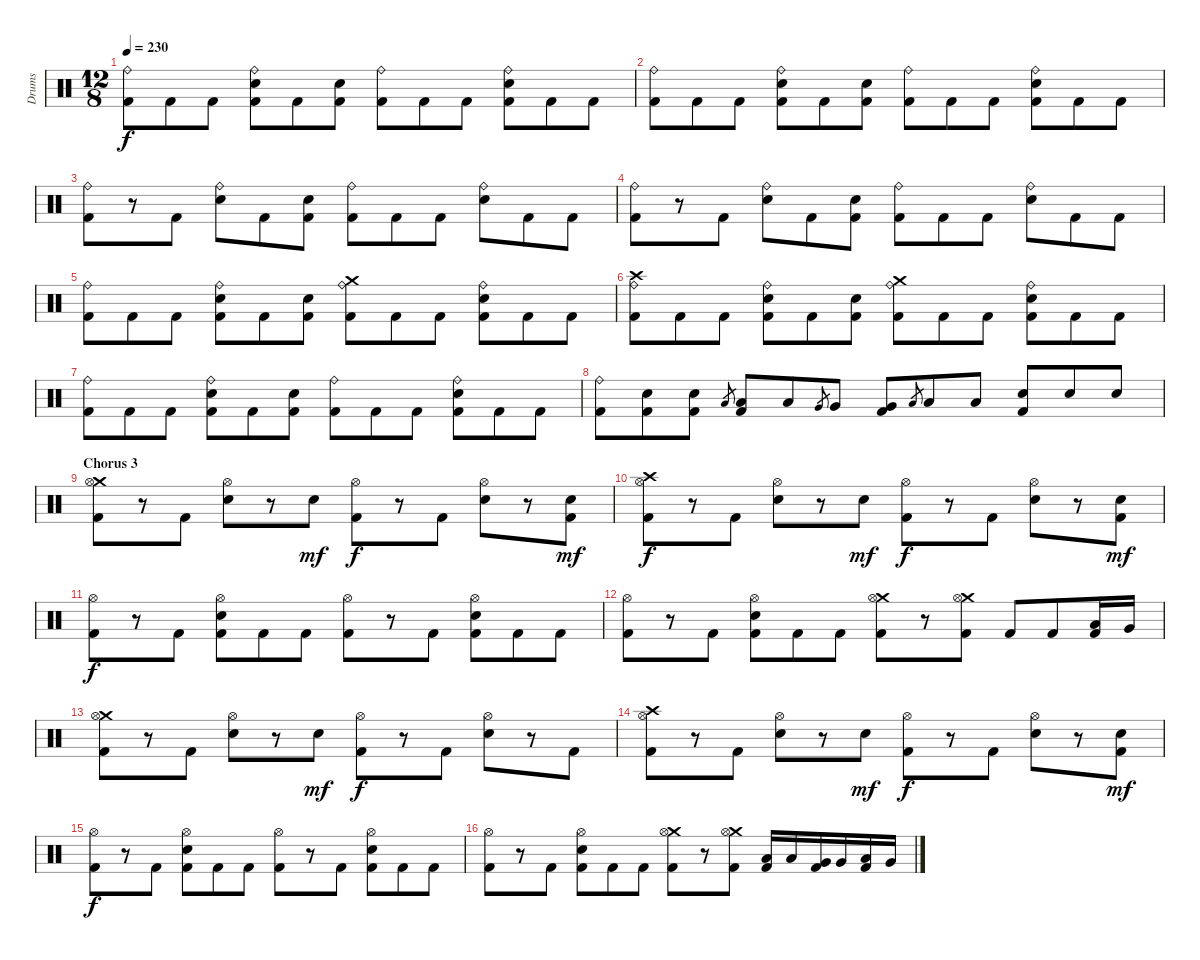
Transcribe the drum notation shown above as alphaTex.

\track ("Drums" "Drums") {instrument percussion}
\staff {score}
\articulation defaults
\ts (12 8)
\tempo 230
\clef neutral
\ks c
("Ride (bell)" "Kick (hit) 2").8{dy f} "Kick (hit) 2".8 "Kick (hit) 2".8 ("Ride (bell)" "Snare (hit) 2" "Kick (hit) 2").8 "Kick (hit) 2".8 ("Snare (hit) 2" "Kick (hit) 2").8 ("Ride (bell)" "Kick (hit) 2").8 "Kick (hit) 2".8 "Kick (hit) 2".8 ("Ride (bell)" "Snare (hit) 2" "Kick (hit) 2").8 "Kick (hit) 2".8 "Kick (hit) 2".8 |
("Ride (bell)" "Kick (hit) 2").8 "Kick (hit) 2".8 "Kick (hit) 2".8 ("Ride (bell)" "Snare (hit) 2" "Kick (hit) 2").8 "Kick (hit) 2".8 ("Snare (hit) 2" "Kick (hit) 2").8 ("Ride (bell)" "Kick (hit) 2").8 "Kick (hit) 2".8 "Kick (hit) 2".8 ("Ride (bell)" "Snare (hit) 2" "Kick (hit) 2").8 "Kick (hit) 2".8 "Kick (hit) 2".8 |
("Ride (bell)" "Kick (hit) 2").8 r.8 "Kick (hit) 2".8 ("Ride (bell)" "Snare (hit) 2").8 "Kick (hit) 2".8 ("Snare (hit) 2" "Kick (hit) 2").8 ("Ride (bell)" "Kick (hit) 2").8 "Kick (hit) 2".8 "Kick (hit) 2".8 ("Ride (bell)" "Snare (hit) 2").8 "Kick (hit) 2".8 "Kick (hit) 2".8 |
("Ride (bell)" "Kick (hit) 2").8 r.8 "Kick (hit) 2".8 ("Ride (bell)" "Snare (hit) 2").8 "Kick (hit) 2".8 ("Snare (hit) 2" "Kick (hit) 2").8 ("Ride (bell)" "Kick (hit) 2").8 "Kick (hit) 2".8 "Kick (hit) 2".8 ("Ride (bell)" "Snare (hit) 2").8 "Kick (hit) 2".8 "Kick (hit) 2".8 |
("Ride (bell)" "Kick (hit) 2").8 "Kick (hit) 2".8 "Kick (hit) 2".8 ("Ride (bell)" "Snare (hit) 2" "Kick (hit) 2").8 "Kick (hit) 2".8 ("Snare (hit) 2" "Kick (hit) 2").8 ("Crash medium (hit)" "Ride (bell)" "Kick (hit) 2").8 "Kick (hit) 2".8 "Kick (hit) 2".8 ("Ride (bell)" "Snare (hit) 2" "Kick (hit) 2").8 "Kick (hit) 2".8 "Kick (hit) 2".8 |
("Crash high (hit)" "Ride (bell)" "Kick (hit) 2").8 "Kick (hit) 2".8 "Kick (hit) 2".8 ("Ride (bell)" "Snare (hit) 2" "Kick (hit) 2").8 "Kick (hit) 2".8 ("Snare (hit) 2" "Kick (hit) 2").8 ("Crash medium (hit)" "Ride (bell)" "Kick (hit) 2").8 "Kick (hit) 2".8 "Kick (hit) 2".8 ("Ride (bell)" "Snare (hit) 2" "Kick (hit) 2").8 "Kick (hit) 2".8 "Kick (hit) 2".8 |
("Ride (bell)" "Kick (hit) 2").8 "Kick (hit) 2".8 "Kick (hit) 2".8 ("Ride (bell)" "Snare (hit) 2" "Kick (hit) 2").8 "Kick (hit) 2".8 ("Snare (hit) 2" "Kick (hit) 2").8 ("Ride (bell)" "Kick (hit) 2").8 "Kick (hit) 2".8 "Kick (hit) 2".8 ("Ride (bell)" "Snare (hit) 2" "Kick (hit) 2").8 "Kick (hit) 2".8 "Kick (hit) 2".8 |
("Ride (bell)" "Kick (hit) 2").8 ("Snare (hit) 2" "Kick (hit) 2").8 ("Snare (hit) 2" "Kick (hit) 2").8 "Low Tom (hit)".8{gr} ("Low Tom (hit)" "Kick (hit) 2").8 "Low Tom (hit)".8 "Very Low Tom (hit)".8{gr} "Very Low Tom (hit)".8 ("Very Low Tom (hit)" "Kick (hit) 2").8 "Low Floor Tom (hit)".8{gr} "Low Floor Tom (hit)".8 "Low Floor Tom (hit)".8 ("Snare (hit) 2" "Kick (hit) 2").8 "Snare (hit) 2".8 "Snare (hit) 2".8 |
\section ("" "Chorus 3")
("Crash medium (hit)" "Hi-Hat (open)" "Kick (hit) 2").8 r.8 "Kick (hit) 2".8 ("Hi-Hat (open)" "Snare (hit) 2").8 r.8 "Snare (hit) 2".8{dy mf} ("Hi-Hat (open)" "Kick (hit) 2").8{dy f} r.8 "Kick (hit) 2".8 ("Hi-Hat (open)" "Snare (hit) 2").8 r.8 ("Snare (hit) 2" "Kick (hit) 2").8{dy mf} |
("Crash high (hit)" "Hi-Hat (open)" "Kick (hit) 2").8{dy f} r.8 "Kick (hit) 2".8 ("Hi-Hat (open)" "Snare (hit) 2").8 r.8 "Snare (hit) 2".8{dy mf} ("Hi-Hat (open)" "Kick (hit) 2").8{dy f} r.8 "Kick (hit) 2".8 ("Hi-Hat (open)" "Snare (hit) 2").8 r.8 ("Snare (hit) 2" "Kick (hit) 2").8{dy mf} |
("Hi-Hat (open)" "Kick (hit) 2").8{dy f} r.8 "Kick (hit) 2".8 ("Hi-Hat (open)" "Snare (hit) 2" "Kick (hit) 2").8 "Kick (hit) 2".8 "Kick (hit) 2".8 ("Hi-Hat (open)" "Kick (hit) 2").8 r.8 "Kick (hit) 2".8 ("Hi-Hat (open)" "Snare (hit) 2" "Kick (hit) 2").8 "Kick (hit) 2".8 "Kick (hit) 2".8 |
("Hi-Hat (open)" "Kick (hit) 2").8 r.8 "Kick (hit) 2".8 ("Hi-Hat (open)" "Snare (hit) 2" "Kick (hit) 2").8 "Kick (hit) 2".8 "Kick (hit) 2".8 ("Crash medium (hit)" "Hi-Hat (open)" "Kick (hit) 2").8 r.8 ("Crash medium (hit)" "Hi-Hat (open)" "Kick (hit) 2").8 "Kick (hit) 2".8 "Kick (hit) 2".8 ("Low Tom (hit)" "Kick (hit) 2").16 "Very Low Tom (hit)".16 |
("Crash medium (hit)" "Hi-Hat (open)" "Kick (hit) 2").8 r.8 "Kick (hit) 2".8 ("Hi-Hat (open)" "Snare (hit) 2").8 r.8 "Snare (hit) 2".8{dy mf} ("Hi-Hat (open)" "Kick (hit) 2").8{dy f} r.8 "Kick (hit) 2".8 ("Hi-Hat (open)" "Snare (hit) 2").8 r.8 "Kick (hit) 2".8 |
("Crash high (hit)" "Hi-Hat (open)" "Kick (hit) 2").8 r.8 "Kick (hit) 2".8 ("Hi-Hat (open)" "Snare (hit) 2").8 r.8 "Snare (hit) 2".8{dy mf} ("Hi-Hat (open)" "Kick (hit) 2").8{dy f} r.8 "Kick (hit) 2".8 ("Hi-Hat (open)" "Snare (hit) 2").8 r.8 ("Snare (hit) 2" "Kick (hit) 2").8{dy mf} |
("Hi-Hat (open)" "Kick (hit) 2").8{dy f} r.8 "Kick (hit) 2".8 ("Hi-Hat (open)" "Snare (hit) 2" "Kick (hit) 2").8 "Kick (hit) 2".8 "Kick (hit) 2".8 ("Hi-Hat (open)" "Kick (hit) 2").8 r.8 "Kick (hit) 2".8 ("Hi-Hat (open)" "Snare (hit) 2" "Kick (hit) 2").8 "Kick (hit) 2".8 "Kick (hit) 2".8 |
("Hi-Hat (open)" "Kick (hit) 2").8 r.8 "Kick (hit) 2".8 ("Hi-Hat (open)" "Snare (hit) 2" "Kick (hit) 2").8 "Kick (hit) 2".8 "Kick (hit) 2".8 ("Crash medium (hit)" "Hi-Hat (open)" "Kick (hit) 2").8 r.8 ("Crash medium (hit)" "Hi-Hat (open)" "Kick (hit) 2").8 ("Low Floor Tom (hit)" "Kick (hit) 2").16 "Low Floor Tom (hit)".16 ("Very Low Tom (hit)" "Kick (hit) 2").16 "Very Low Tom (hit)".16 ("Low Tom (hit)" "Kick (hit) 2").16 "Very Low Tom (hit)".16
